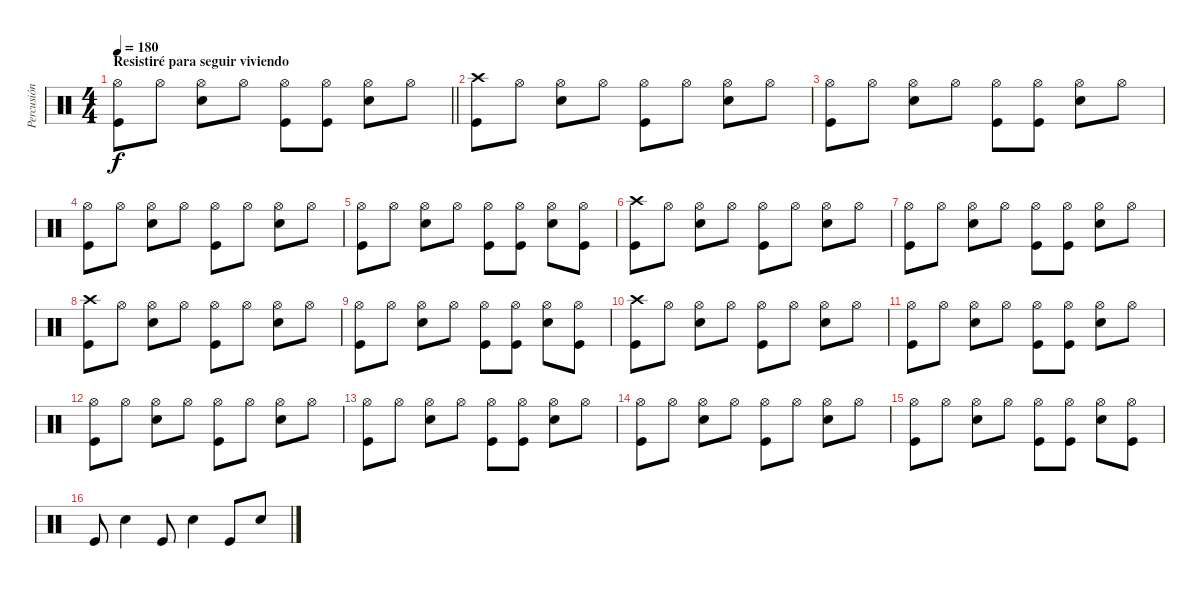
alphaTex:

\track ("Percusión" "Percusión") {instrument percussion}
\staff {score}
\articulation defaults
\ts (4 4)
\section ("" "Resistiré para seguir viviendo")
\tempo 180
\clef neutral
\barLineRight lightlight
\ks c
("Hi-Hat (open)" "Kick (hit)").8{dy f} "Hi-Hat (open)".8 ("Hi-Hat (open)" "Electric Snare (hit)").8 "Hi-Hat (open)".8 ("Hi-Hat (open)" "Kick (hit)").8 ("Hi-Hat (open)" "Kick (hit)").8 ("Hi-Hat (open)" "Electric Snare (hit)").8 "Hi-Hat (open)".8 |
("Crash high (hit)" "Kick (hit)").8 "Hi-Hat (open)".8 ("Hi-Hat (open)" "Electric Snare (hit)").8 "Hi-Hat (open)".8 ("Hi-Hat (open)" "Kick (hit)").8 "Hi-Hat (open)".8 ("Hi-Hat (open)" "Electric Snare (hit)").8 "Hi-Hat (open)".8 |
("Hi-Hat (open)" "Kick (hit)").8 "Hi-Hat (open)".8 ("Hi-Hat (open)" "Electric Snare (hit)").8 "Hi-Hat (open)".8 ("Hi-Hat (open)" "Kick (hit)").8 ("Hi-Hat (open)" "Kick (hit)").8 ("Hi-Hat (open)" "Electric Snare (hit)").8 "Hi-Hat (open)".8 |
("Hi-Hat (open)" "Kick (hit)").8 "Hi-Hat (open)".8 ("Hi-Hat (open)" "Electric Snare (hit)").8 "Hi-Hat (open)".8 ("Hi-Hat (open)" "Kick (hit)").8 "Hi-Hat (open)".8 ("Hi-Hat (open)" "Electric Snare (hit)").8 "Hi-Hat (open)".8 |
("Hi-Hat (open)" "Kick (hit)").8 "Hi-Hat (open)".8 ("Hi-Hat (open)" "Electric Snare (hit)").8 "Hi-Hat (open)".8 ("Hi-Hat (open)" "Kick (hit)").8 ("Hi-Hat (open)" "Kick (hit)").8 ("Hi-Hat (open)" "Electric Snare (hit)").8 ("Hi-Hat (open)" "Kick (hit)").8 |
("Crash high (hit)" "Kick (hit)").8 "Hi-Hat (open)".8 ("Hi-Hat (open)" "Electric Snare (hit)").8 "Hi-Hat (open)".8 ("Hi-Hat (open)" "Kick (hit)").8 "Hi-Hat (open)".8 ("Hi-Hat (open)" "Electric Snare (hit)").8 "Hi-Hat (open)".8 |
("Hi-Hat (open)" "Kick (hit)").8 "Hi-Hat (open)".8 ("Hi-Hat (open)" "Electric Snare (hit)").8 "Hi-Hat (open)".8 ("Hi-Hat (open)" "Kick (hit)").8 ("Hi-Hat (open)" "Kick (hit)").8 ("Hi-Hat (open)" "Electric Snare (hit)").8 "Hi-Hat (open)".8 |
("Crash high (hit)" "Kick (hit)").8 "Hi-Hat (open)".8 ("Hi-Hat (open)" "Electric Snare (hit)").8 "Hi-Hat (open)".8 ("Hi-Hat (open)" "Kick (hit)").8 "Hi-Hat (open)".8 ("Hi-Hat (open)" "Electric Snare (hit)").8 "Hi-Hat (open)".8 |
("Hi-Hat (open)" "Kick (hit)").8 "Hi-Hat (open)".8 ("Hi-Hat (open)" "Electric Snare (hit)").8 "Hi-Hat (open)".8 ("Hi-Hat (open)" "Kick (hit)").8 ("Hi-Hat (open)" "Kick (hit)").8 ("Hi-Hat (open)" "Electric Snare (hit)").8 ("Hi-Hat (open)" "Kick (hit)").8 |
("Crash high (hit)" "Kick (hit)").8 "Hi-Hat (open)".8 ("Hi-Hat (open)" "Electric Snare (hit)").8 "Hi-Hat (open)".8 ("Hi-Hat (open)" "Kick (hit)").8 "Hi-Hat (open)".8 ("Hi-Hat (open)" "Electric Snare (hit)").8 "Hi-Hat (open)".8 |
("Hi-Hat (open)" "Kick (hit)").8 "Hi-Hat (open)".8 ("Hi-Hat (open)" "Electric Snare (hit)").8 "Hi-Hat (open)".8 ("Hi-Hat (open)" "Kick (hit)").8 ("Hi-Hat (open)" "Kick (hit)").8 ("Hi-Hat (open)" "Electric Snare (hit)").8 "Hi-Hat (open)".8 |
("Hi-Hat (open)" "Kick (hit)").8 "Hi-Hat (open)".8 ("Hi-Hat (open)" "Electric Snare (hit)").8 "Hi-Hat (open)".8 ("Hi-Hat (open)" "Kick (hit)").8 "Hi-Hat (open)".8 ("Hi-Hat (open)" "Electric Snare (hit)").8 "Hi-Hat (open)".8 |
("Hi-Hat (open)" "Kick (hit)").8 "Hi-Hat (open)".8 ("Hi-Hat (open)" "Electric Snare (hit)").8 "Hi-Hat (open)".8 ("Hi-Hat (open)" "Kick (hit)").8 ("Hi-Hat (open)" "Kick (hit)").8 ("Hi-Hat (open)" "Electric Snare (hit)").8 "Hi-Hat (open)".8 |
("Hi-Hat (open)" "Kick (hit)").8 "Hi-Hat (open)".8 ("Hi-Hat (open)" "Electric Snare (hit)").8 "Hi-Hat (open)".8 ("Hi-Hat (open)" "Kick (hit)").8 "Hi-Hat (open)".8 ("Hi-Hat (open)" "Electric Snare (hit)").8 "Hi-Hat (open)".8 |
("Hi-Hat (open)" "Kick (hit)").8 "Hi-Hat (open)".8 ("Hi-Hat (open)" "Electric Snare (hit)").8 "Hi-Hat (open)".8 ("Hi-Hat (open)" "Kick (hit)").8 ("Hi-Hat (open)" "Kick (hit)").8 ("Hi-Hat (open)" "Electric Snare (hit)").8 ("Hi-Hat (open)" "Kick (hit)").8 |
"Kick (hit)".8 "Electric Snare (hit)".4 "Kick (hit)".8 "Electric Snare (hit)".4 "Kick (hit)".8 "Electric Snare (hit)".8
